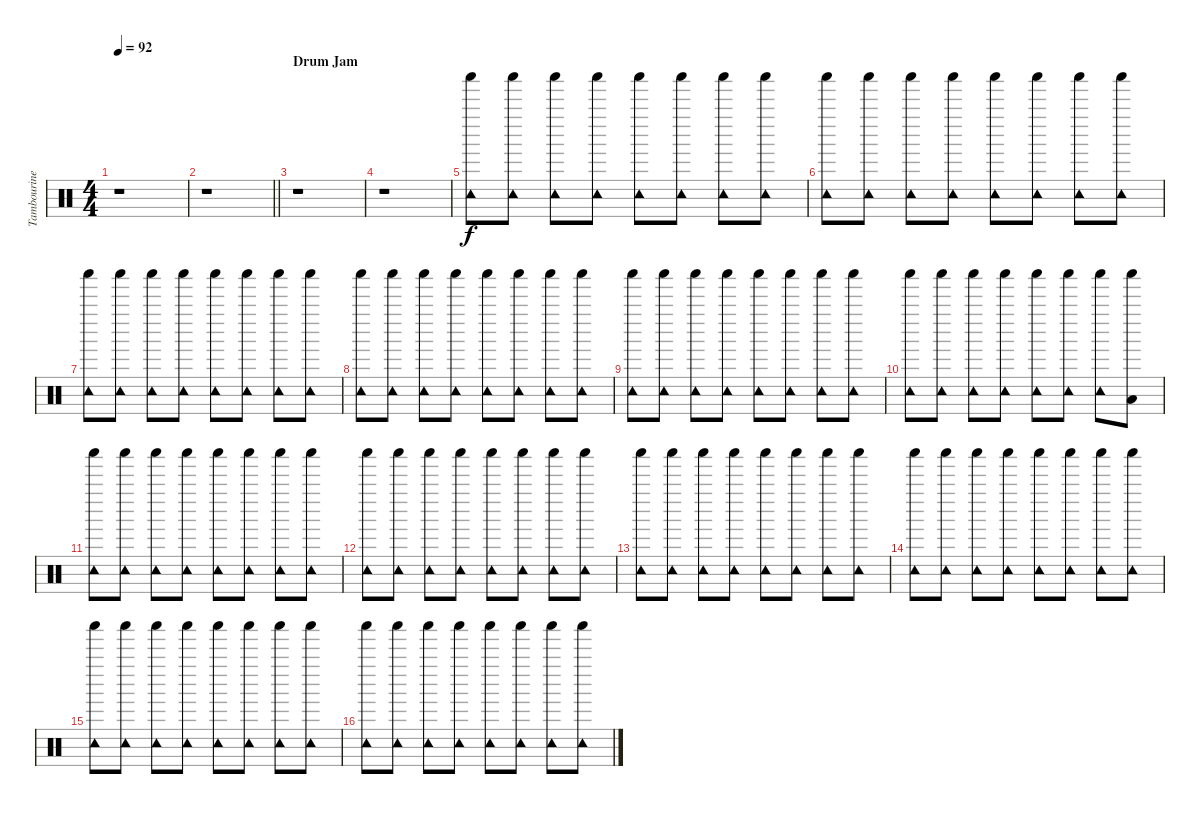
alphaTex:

\track ("Tambourine and Shaker" "Tambourine") {instrument percussion}
\staff {score}
\articulation defaults
\ts (4 4)
\tempo 92
\clef neutral
\ks c
r.1{dy f} |
\barLineRight lightlight
r.1 |
\section ("" "Drum Jam")
r.1 |
r.1 |
("Shaker (hit)" "Tambourine (hit)").8 ("Shaker (hit)" "Tambourine (hit)").8 ("Shaker (hit)" "Tambourine (hit)").8 ("Shaker (hit)" "Tambourine (hit)").8 ("Shaker (hit)" "Tambourine (hit)").8 ("Shaker (hit)" "Tambourine (hit)").8 ("Shaker (hit)" "Tambourine (hit)").8 ("Shaker (hit)" "Tambourine (hit)").8 |
("Shaker (hit)" "Tambourine (hit)").8 ("Shaker (hit)" "Tambourine (hit)").8 ("Shaker (hit)" "Tambourine (hit)").8 ("Shaker (hit)" "Tambourine (hit)").8 ("Shaker (hit)" "Tambourine (hit)").8 ("Shaker (hit)" "Tambourine (hit)").8 ("Shaker (hit)" "Tambourine (hit)").8 ("Shaker (hit)" "Tambourine (hit)").8 |
("Shaker (hit)" "Tambourine (hit)").8 ("Shaker (hit)" "Tambourine (hit)").8 ("Shaker (hit)" "Tambourine (hit)").8 ("Shaker (hit)" "Tambourine (hit)").8 ("Shaker (hit)" "Tambourine (hit)").8 ("Shaker (hit)" "Tambourine (hit)").8 ("Shaker (hit)" "Tambourine (hit)").8 ("Shaker (hit)" "Tambourine (hit)").8 |
("Shaker (hit)" "Tambourine (hit)").8 ("Shaker (hit)" "Tambourine (hit)").8 ("Shaker (hit)" "Tambourine (hit)").8 ("Shaker (hit)" "Tambourine (hit)").8 ("Shaker (hit)" "Tambourine (hit)").8 ("Shaker (hit)" "Tambourine (hit)").8 ("Shaker (hit)" "Tambourine (hit)").8 ("Shaker (hit)" "Tambourine (hit)").8 |
("Shaker (hit)" "Tambourine (hit)").8 ("Shaker (hit)" "Tambourine (hit)").8 ("Shaker (hit)" "Tambourine (hit)").8 ("Shaker (hit)" "Tambourine (hit)").8 ("Shaker (hit)" "Tambourine (hit)").8 ("Shaker (hit)" "Tambourine (hit)").8 ("Shaker (hit)" "Tambourine (hit)").8 ("Shaker (hit)" "Tambourine (hit)").8 |
("Shaker (hit)" "Tambourine (hit)").8 ("Shaker (hit)" "Tambourine (hit)").8 ("Shaker (hit)" "Tambourine (hit)").8 ("Shaker (hit)" "Tambourine (hit)").8 ("Shaker (hit)" "Tambourine (hit)").8 ("Shaker (hit)" "Tambourine (hit)").8 ("Shaker (hit)" "Tambourine (hit)").8 ("Shaker (hit)" "Low Tom (hit)").8 |
("Shaker (hit)" "Tambourine (hit)").8 ("Shaker (hit)" "Tambourine (hit)").8 ("Shaker (hit)" "Tambourine (hit)").8 ("Shaker (hit)" "Tambourine (hit)").8 ("Shaker (hit)" "Tambourine (hit)").8 ("Shaker (hit)" "Tambourine (hit)").8 ("Shaker (hit)" "Tambourine (hit)").8 ("Shaker (hit)" "Tambourine (hit)").8 |
("Shaker (hit)" "Tambourine (hit)").8 ("Shaker (hit)" "Tambourine (hit)").8 ("Shaker (hit)" "Tambourine (hit)").8 ("Shaker (hit)" "Tambourine (hit)").8 ("Shaker (hit)" "Tambourine (hit)").8 ("Shaker (hit)" "Tambourine (hit)").8 ("Shaker (hit)" "Tambourine (hit)").8 ("Shaker (hit)" "Tambourine (hit)").8 |
("Shaker (hit)" "Tambourine (hit)").8 ("Shaker (hit)" "Tambourine (hit)").8 ("Shaker (hit)" "Tambourine (hit)").8 ("Shaker (hit)" "Tambourine (hit)").8 ("Shaker (hit)" "Tambourine (hit)").8 ("Shaker (hit)" "Tambourine (hit)").8 ("Shaker (hit)" "Tambourine (hit)").8 ("Shaker (hit)" "Tambourine (hit)").8 |
("Shaker (hit)" "Tambourine (hit)").8{volume 16} ("Shaker (hit)" "Tambourine (hit)").8 ("Shaker (hit)" "Tambourine (hit)").8 ("Shaker (hit)" "Tambourine (hit)").8 ("Shaker (hit)" "Tambourine (hit)").8 ("Shaker (hit)" "Tambourine (hit)").8 ("Shaker (hit)" "Tambourine (hit)").8 ("Shaker (hit)" "Tambourine (hit)").8 |
("Shaker (hit)" "Tambourine (hit)").8 ("Shaker (hit)" "Tambourine (hit)").8 ("Shaker (hit)" "Tambourine (hit)").8 ("Shaker (hit)" "Tambourine (hit)").8 ("Shaker (hit)" "Tambourine (hit)").8 ("Shaker (hit)" "Tambourine (hit)").8 ("Shaker (hit)" "Tambourine (hit)").8 ("Shaker (hit)" "Tambourine (hit)").8 |
("Shaker (hit)" "Tambourine (hit)").8 ("Shaker (hit)" "Tambourine (hit)").8 ("Shaker (hit)" "Tambourine (hit)").8 ("Shaker (hit)" "Tambourine (hit)").8 ("Shaker (hit)" "Tambourine (hit)").8 ("Shaker (hit)" "Tambourine (hit)").8 ("Shaker (hit)" "Tambourine (hit)").8 ("Shaker (hit)" "Tambourine (hit)").8
